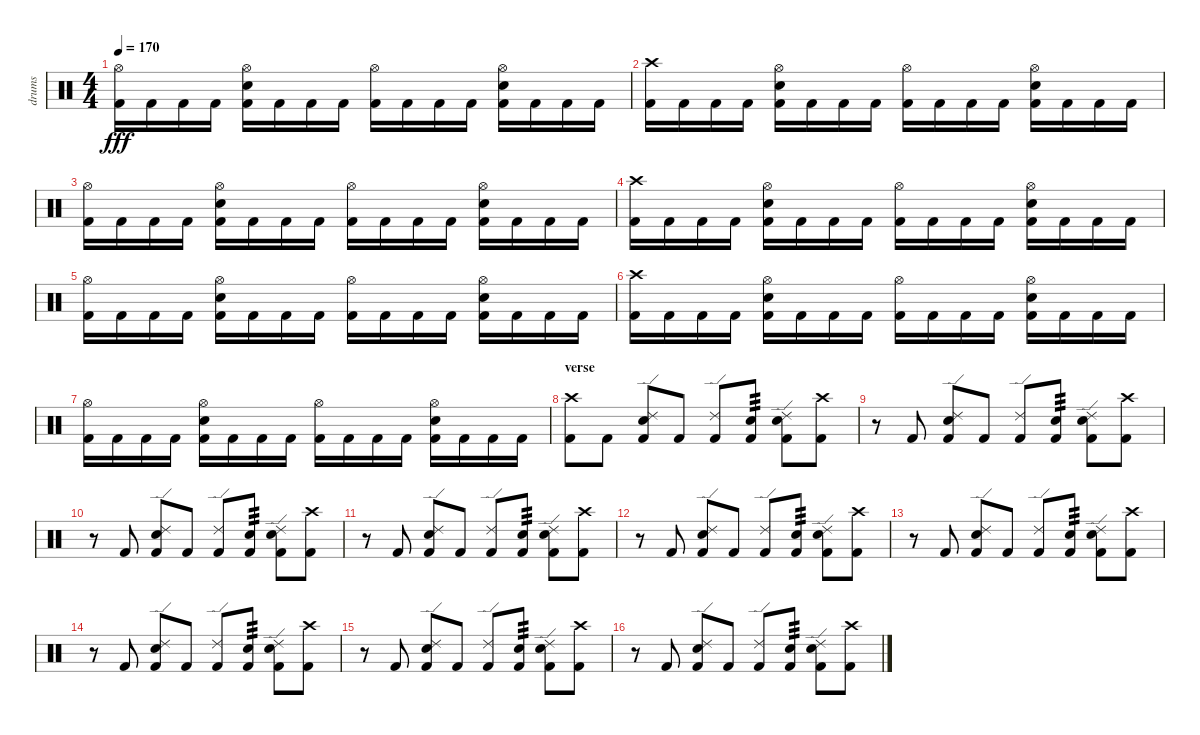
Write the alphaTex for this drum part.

\track ("drums" "drums") {instrument percussion}
\staff {score}
\articulation defaults
\ts (4 4)
\tempo 170
\clef neutral
\ks c
("Hi-Hat (open)" "Kick (hit) 2").16{dy fff} "Kick (hit) 2".16 "Kick (hit) 2".16 "Kick (hit) 2".16 ("Hi-Hat (open)" "Snare (hit) 2" "Kick (hit) 2").16 "Kick (hit) 2".16 "Kick (hit) 2".16 "Kick (hit) 2".16 ("Hi-Hat (open)" "Kick (hit) 2").16 "Kick (hit) 2".16 "Kick (hit) 2".16 "Kick (hit) 2".16 ("Hi-Hat (open)" "Snare (hit) 2" "Kick (hit) 2").16 "Kick (hit) 2".16 "Kick (hit) 2".16 "Kick (hit) 2".16 |
("Crash high (hit)" "Kick (hit) 2").16 "Kick (hit) 2".16 "Kick (hit) 2".16 "Kick (hit) 2".16 ("Hi-Hat (open)" "Snare (hit) 2" "Kick (hit) 2").16 "Kick (hit) 2".16 "Kick (hit) 2".16 "Kick (hit) 2".16 ("Hi-Hat (open)" "Kick (hit) 2").16 "Kick (hit) 2".16 "Kick (hit) 2".16 "Kick (hit) 2".16 ("Hi-Hat (open)" "Snare (hit) 2" "Kick (hit) 2").16 "Kick (hit) 2".16 "Kick (hit) 2".16 "Kick (hit) 2".16 |
("Hi-Hat (open)" "Kick (hit) 2").16 "Kick (hit) 2".16 "Kick (hit) 2".16 "Kick (hit) 2".16 ("Hi-Hat (open)" "Snare (hit) 2" "Kick (hit) 2").16 "Kick (hit) 2".16 "Kick (hit) 2".16 "Kick (hit) 2".16 ("Hi-Hat (open)" "Kick (hit) 2").16 "Kick (hit) 2".16 "Kick (hit) 2".16 "Kick (hit) 2".16 ("Hi-Hat (open)" "Snare (hit) 2" "Kick (hit) 2").16 "Kick (hit) 2".16 "Kick (hit) 2".16 "Kick (hit) 2".16 |
("Crash high (hit)" "Kick (hit) 2").16 "Kick (hit) 2".16 "Kick (hit) 2".16 "Kick (hit) 2".16 ("Hi-Hat (open)" "Snare (hit) 2" "Kick (hit) 2").16 "Kick (hit) 2".16 "Kick (hit) 2".16 "Kick (hit) 2".16 ("Hi-Hat (open)" "Kick (hit) 2").16 "Kick (hit) 2".16 "Kick (hit) 2".16 "Kick (hit) 2".16 ("Hi-Hat (open)" "Snare (hit) 2" "Kick (hit) 2").16 "Kick (hit) 2".16 "Kick (hit) 2".16 "Kick (hit) 2".16 |
("Hi-Hat (open)" "Kick (hit) 2").16 "Kick (hit) 2".16 "Kick (hit) 2".16 "Kick (hit) 2".16 ("Hi-Hat (open)" "Snare (hit) 2" "Kick (hit) 2").16 "Kick (hit) 2".16 "Kick (hit) 2".16 "Kick (hit) 2".16 ("Hi-Hat (open)" "Kick (hit) 2").16 "Kick (hit) 2".16 "Kick (hit) 2".16 "Kick (hit) 2".16 ("Hi-Hat (open)" "Snare (hit) 2" "Kick (hit) 2").16 "Kick (hit) 2".16 "Kick (hit) 2".16 "Kick (hit) 2".16 |
("Crash high (hit)" "Kick (hit) 2").16 "Kick (hit) 2".16 "Kick (hit) 2".16 "Kick (hit) 2".16 ("Hi-Hat (open)" "Snare (hit) 2" "Kick (hit) 2").16 "Kick (hit) 2".16 "Kick (hit) 2".16 "Kick (hit) 2".16 ("Hi-Hat (open)" "Kick (hit) 2").16 "Kick (hit) 2".16 "Kick (hit) 2".16 "Kick (hit) 2".16 ("Hi-Hat (open)" "Snare (hit) 2" "Kick (hit) 2").16 "Kick (hit) 2".16 "Kick (hit) 2".16 "Kick (hit) 2".16 |
("Hi-Hat (open)" "Kick (hit) 2").16 "Kick (hit) 2".16 "Kick (hit) 2".16 "Kick (hit) 2".16 ("Hi-Hat (open)" "Snare (hit) 2" "Kick (hit) 2").16 "Kick (hit) 2".16 "Kick (hit) 2".16 "Kick (hit) 2".16 ("Hi-Hat (open)" "Kick (hit) 2").16 "Kick (hit) 2".16 "Kick (hit) 2".16 "Kick (hit) 2".16 ("Hi-Hat (open)" "Snare (hit) 2" "Kick (hit) 2").16 "Kick (hit) 2".16 "Kick (hit) 2".16 "Kick (hit) 2".16 |
\section ("" "verse")
("Crash high (hit)" "Kick (hit) 2").8 "Kick (hit) 2".8 ("Ride (edge) 2" "Snare (hit) 2" "Kick (hit) 2").8 "Kick (hit) 2".8 ("Ride (edge) 2" "Kick (hit) 2").8 ("Snare (hit) 2" "Kick (hit) 2").8{tp 3} ("Ride (edge) 2" "Snare (hit) 2" "Kick (hit) 2").8 ("Crash high (hit)" "Kick (hit) 2").8 |
r.8 "Kick (hit) 2".8 ("Ride (edge) 2" "Snare (hit) 2" "Kick (hit) 2").8 "Kick (hit) 2".8 ("Ride (edge) 2" "Kick (hit) 2").8 ("Snare (hit) 2" "Kick (hit) 2").8{tp 3} ("Ride (edge) 2" "Snare (hit) 2" "Kick (hit) 2").8 ("Crash high (hit)" "Kick (hit) 2").8 |
r.8 "Kick (hit) 2".8 ("Ride (edge) 2" "Snare (hit) 2" "Kick (hit) 2").8 "Kick (hit) 2".8 ("Ride (edge) 2" "Kick (hit) 2").8 ("Snare (hit) 2" "Kick (hit) 2").8{tp 3} ("Ride (edge) 2" "Snare (hit) 2" "Kick (hit) 2").8 ("Crash high (hit)" "Kick (hit) 2").8 |
r.8 "Kick (hit) 2".8 ("Ride (edge) 2" "Snare (hit) 2" "Kick (hit) 2").8 "Kick (hit) 2".8 ("Ride (edge) 2" "Kick (hit) 2").8 ("Snare (hit) 2" "Kick (hit) 2").8{tp 3} ("Ride (edge) 2" "Snare (hit) 2" "Kick (hit) 2").8 ("Crash high (hit)" "Kick (hit) 2").8 |
r.8 "Kick (hit) 2".8 ("Ride (edge) 2" "Snare (hit) 2" "Kick (hit) 2").8 "Kick (hit) 2".8 ("Ride (edge) 2" "Kick (hit) 2").8 ("Snare (hit) 2" "Kick (hit) 2").8{tp 3} ("Ride (edge) 2" "Snare (hit) 2" "Kick (hit) 2").8 ("Crash high (hit)" "Kick (hit) 2").8 |
r.8 "Kick (hit) 2".8 ("Ride (edge) 2" "Snare (hit) 2" "Kick (hit) 2").8 "Kick (hit) 2".8 ("Ride (edge) 2" "Kick (hit) 2").8 ("Snare (hit) 2" "Kick (hit) 2").8{tp 3} ("Ride (edge) 2" "Snare (hit) 2" "Kick (hit) 2").8 ("Crash high (hit)" "Kick (hit) 2").8 |
r.8 "Kick (hit) 2".8 ("Ride (edge) 2" "Snare (hit) 2" "Kick (hit) 2").8 "Kick (hit) 2".8 ("Ride (edge) 2" "Kick (hit) 2").8 ("Snare (hit) 2" "Kick (hit) 2").8{tp 3} ("Ride (edge) 2" "Snare (hit) 2" "Kick (hit) 2").8 ("Crash high (hit)" "Kick (hit) 2").8 |
r.8 "Kick (hit) 2".8 ("Ride (edge) 2" "Snare (hit) 2" "Kick (hit) 2").8 "Kick (hit) 2".8 ("Ride (edge) 2" "Kick (hit) 2").8 ("Snare (hit) 2" "Kick (hit) 2").8{tp 3} ("Ride (edge) 2" "Snare (hit) 2" "Kick (hit) 2").8 ("Crash high (hit)" "Kick (hit) 2").8 |
r.8 "Kick (hit) 2".8 ("Ride (edge) 2" "Snare (hit) 2" "Kick (hit) 2").8 "Kick (hit) 2".8 ("Ride (edge) 2" "Kick (hit) 2").8 ("Snare (hit) 2" "Kick (hit) 2").8{tp 3} ("Ride (edge) 2" "Snare (hit) 2" "Kick (hit) 2").8 ("Crash high (hit)" "Kick (hit) 2").8
